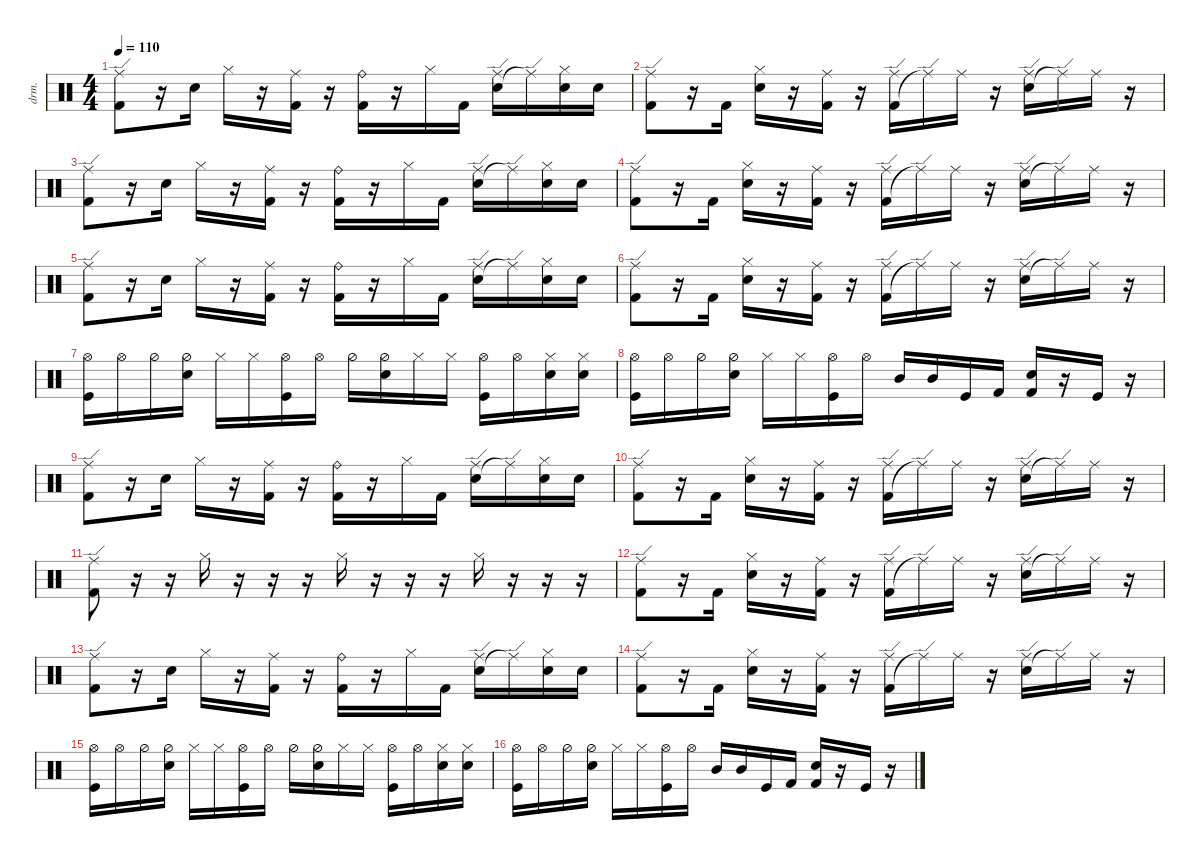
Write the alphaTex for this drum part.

\defaultSystemsLayout 4
\hideDynamics
\bracketExtendMode nobrackets
\otherSystemsTrackNameOrientation horizontal
\track ("Drumkit" "drm.") {instrument percussion}
\staff {score}
\articulation defaults
\ts (4 4)
\tempo 110
\clef neutral
\ks c
("Kick (hit) 2" "Ride (edge)").8{dy mf beam Down} r.16{beam Down} "Snare (hit) 2".16{beam Down} "Hi-Hat (closed)".16{beam Down} r.16{beam Down} ("Kick (hit) 2" "Ride (middle)").16{beam Down} r.16{beam Down} ("Kick (hit) 2" "Ride (bell)").16{beam Down} r.16{beam Down} "Hi-Hat (closed)".16{beam Down} "Kick (hit) 2".16{beam Down} ("Snare (hit) 2" "Ride (edge)").16{beam Down} "Ride (edge)"{t}.16{beam Down} ("Snare (hit) 2" "Hi-Hat (closed)").16{beam Down} "Snare (hit) 2".16{beam Down} |
("Kick (hit) 2" "Ride (edge)").8{beam Down} r.16{beam Down} "Kick (hit) 2".16{beam Down} ("Snare (hit) 2" "Hi-Hat (closed)").16{beam Down} r.16{beam Down} ("Kick (hit) 2" "Ride (middle)").16{beam Down} r.16{beam Down} ("Kick (hit) 2" "Ride (edge)").16{beam Down} "Ride (edge)"{t}.16{beam Down} "Ride (middle)".16{beam Down} r.16{beam Down} ("Snare (hit) 2" "Ride (edge)").16{beam Down} "Ride (edge)"{t}.16{beam Down} "Ride (middle)".16{beam Down} r.16{beam Down} |
("Kick (hit) 2" "Ride (edge)").8{beam Down} r.16{beam Down} "Snare (hit) 2".16{beam Down} "Hi-Hat (closed)".16{beam Down} r.16{beam Down} ("Kick (hit) 2" "Ride (middle)").16{beam Down} r.16{beam Down} ("Kick (hit) 2" "Ride (bell)").16{beam Down} r.16{beam Down} "Hi-Hat (closed)".16{beam Down} "Kick (hit) 2".16{beam Down} ("Snare (hit) 2" "Ride (edge)").16{beam Down} "Ride (edge)"{t}.16{beam Down} ("Snare (hit) 2" "Hi-Hat (closed)").16{beam Down} "Snare (hit) 2".16{beam Down} |
("Kick (hit) 2" "Ride (edge)").8{beam Down} r.16{beam Down} "Kick (hit) 2".16{beam Down} ("Snare (hit) 2" "Hi-Hat (closed)").16{beam Down} r.16{beam Down} ("Kick (hit) 2" "Ride (middle)").16{beam Down} r.16{beam Down} ("Kick (hit) 2" "Ride (edge)").16{beam Down} "Ride (edge)"{t}.16{beam Down} "Ride (middle)".16{beam Down} r.16{beam Down} ("Snare (hit) 2" "Ride (edge)").16{beam Down} "Ride (edge)"{t}.16{beam Down} "Ride (middle)".16{beam Down} r.16{beam Down} |
("Kick (hit) 2" "Ride (edge)").8{beam Down} r.16{beam Down} "Snare (hit) 2".16{beam Down} "Hi-Hat (closed)".16{beam Down} r.16{beam Down} ("Kick (hit) 2" "Ride (middle)").16{beam Down} r.16{beam Down} ("Kick (hit) 2" "Ride (bell)").16{beam Down} r.16{beam Down} "Hi-Hat (closed)".16{beam Down} "Kick (hit) 2".16{beam Down} ("Snare (hit) 2" "Ride (edge)").16{beam Down} "Ride (edge)"{t}.16{beam Down} ("Snare (hit) 2" "Hi-Hat (closed)").16{beam Down} "Snare (hit) 2".16{beam Down} |
("Kick (hit) 2" "Ride (edge)").8{beam Down} r.16{beam Down} "Kick (hit) 2".16{beam Down} ("Snare (hit) 2" "Hi-Hat (closed)").16{beam Down} r.16{beam Down} ("Kick (hit) 2" "Ride (middle)").16{beam Down} r.16{beam Down} ("Kick (hit) 2" "Ride (edge)").16{beam Down} "Ride (edge)"{t}.16{beam Down} "Ride (middle)".16{beam Down} r.16{beam Down} ("Snare (hit) 2" "Ride (edge)").16{beam Down} "Ride (edge)"{t}.16{beam Down} "Ride (middle)".16{beam Down} r.16{beam Down} |
("Hi-Hat (open)" "Kick (hit)").16{beam Down} "Hi-Hat (open)".16{beam Down} "Hi-Hat (half)".16{beam Down} ("Hi-Hat (half)" "Snare (hit) 2").16{beam Down} "Hi-Hat (closed)".16{beam Down} "Hi-Hat (closed)".16{beam Down} ("Hi-Hat (open)" "Kick (hit)").16{beam Down} "Hi-Hat (open)".16{beam Down} "Hi-Hat (half)".16{beam Down} ("Snare (hit) 2" "Hi-Hat (half)").16{beam Down} "Hi-Hat (closed)".16{beam Down} "Hi-Hat (closed)".16{beam Down} ("Hi-Hat (open)" "Kick (hit)").16{beam Down} "Hi-Hat (open)".16{beam Down} ("Snare (hit) 2" "Hi-Hat (closed)").16{beam Down} ("Hi-Hat (closed)" "Snare (hit) 2").16{beam Down} |
("Hi-Hat (open)" "Kick (hit)").16{beam Down} "Hi-Hat (open)".16{beam Down} "Hi-Hat (half)".16{beam Down} ("Hi-Hat (half)" "Snare (hit) 2").16{beam Down} "Hi-Hat (closed)".16{beam Down} "Hi-Hat (closed)".16{beam Down} ("Hi-Hat (open)" "Kick (hit)").16{beam Down} "Hi-Hat (open)".16{beam Down} "Mid Tom (hit)".16{beam Up} "Mid Tom (hit)".16{beam Up} "Kick (hit)".16{beam Up} "Kick (hit) 2".16{beam Up} ("Kick (hit) 2" "Snare (hit) 2").16{beam Up} r.16{beam Up} "Kick (hit)".16{beam Up} r.16{beam Up} |
("Kick (hit) 2" "Ride (edge)").8{beam Down} r.16{beam Down} "Snare (hit) 2".16{beam Down} "Hi-Hat (closed)".16{beam Down} r.16{beam Down} ("Kick (hit) 2" "Ride (middle)").16{beam Down} r.16{beam Down} ("Kick (hit) 2" "Ride (bell)").16{beam Down} r.16{beam Down} "Hi-Hat (closed)".16{beam Down} "Kick (hit) 2".16{beam Down} ("Snare (hit) 2" "Ride (edge)").16{beam Down} "Ride (edge)"{t}.16{beam Down} ("Snare (hit) 2" "Hi-Hat (closed)").16{beam Down} "Snare (hit) 2".16{beam Down} |
("Kick (hit) 2" "Ride (edge)").8{beam Down} r.16{beam Down} "Kick (hit) 2".16{beam Down} ("Snare (hit) 2" "Hi-Hat (closed)").16{beam Down} r.16{beam Down} ("Kick (hit) 2" "Ride (middle)").16{beam Down} r.16{beam Down} ("Kick (hit) 2" "Ride (edge)").16{beam Down} "Ride (edge)"{t}.16{beam Down} "Ride (middle)".16{beam Down} r.16{beam Down} ("Snare (hit) 2" "Ride (edge)").16{beam Down} "Ride (edge)"{t}.16{beam Down} "Ride (middle)".16{beam Down} r.16{beam Down} |
("Kick (hit) 2" "Ride (edge)").8{beam Down} r.16{beam Down} r.16{beam Down} "Hi-Hat (closed)".16{beam Down} r.16{beam Down} r.16{beam Down} r.16{beam Down} "Hi-Hat (closed)".16{beam Down} r.16{beam Down} r.16{beam Down} r.16{beam Down} "Hi-Hat (closed)".16{beam Down} r.16{beam Down} r.16{beam Down} r.16{beam Down} |
("Kick (hit) 2" "Ride (edge)").8{beam Down} r.16{beam Down} "Kick (hit) 2".16{beam Down} ("Snare (hit) 2" "Hi-Hat (closed)").16{beam Down} r.16{beam Down} ("Kick (hit) 2" "Ride (middle)").16{beam Down} r.16{beam Down} ("Kick (hit) 2" "Ride (edge)").16{beam Down} "Ride (edge)"{t}.16{beam Down} "Ride (middle)".16{beam Down} r.16{beam Down} ("Snare (hit) 2" "Ride (edge)").16{beam Down} "Ride (edge)"{t}.16{beam Down} "Ride (middle)".16{beam Down} r.16{beam Down} |
("Kick (hit) 2" "Ride (edge)").8{beam Down} r.16{beam Down} "Snare (hit) 2".16{beam Down} "Hi-Hat (closed)".16{beam Down} r.16{beam Down} ("Kick (hit) 2" "Ride (middle)").16{beam Down} r.16{beam Down} ("Kick (hit) 2" "Ride (bell)").16{beam Down} r.16{beam Down} "Hi-Hat (closed)".16{beam Down} "Kick (hit) 2".16{beam Down} ("Snare (hit) 2" "Ride (edge)").16{beam Down} "Ride (edge)"{t}.16{beam Down} ("Snare (hit) 2" "Hi-Hat (closed)").16{beam Down} "Snare (hit) 2".16{beam Down} |
("Kick (hit) 2" "Ride (edge)").8{beam Down} r.16{beam Down} "Kick (hit) 2".16{beam Down} ("Snare (hit) 2" "Hi-Hat (closed)").16{beam Down} r.16{beam Down} ("Kick (hit) 2" "Ride (middle)").16{beam Down} r.16{beam Down} ("Kick (hit) 2" "Ride (edge)").16{beam Down} "Ride (edge)"{t}.16{beam Down} "Ride (middle)".16{beam Down} r.16{beam Down} ("Snare (hit) 2" "Ride (edge)").16{beam Down} "Ride (edge)"{t}.16{beam Down} "Ride (middle)".16{beam Down} r.16{beam Down} |
("Hi-Hat (open)" "Kick (hit)").16{beam Down} "Hi-Hat (open)".16{beam Down} "Hi-Hat (half)".16{beam Down} ("Hi-Hat (half)" "Snare (hit) 2").16{beam Down} "Hi-Hat (closed)".16{beam Down} "Hi-Hat (closed)".16{beam Down} ("Hi-Hat (open)" "Kick (hit)").16{beam Down} "Hi-Hat (open)".16{beam Down} "Hi-Hat (half)".16{beam Down} ("Snare (hit) 2" "Hi-Hat (half)").16{beam Down} "Hi-Hat (closed)".16{beam Down} "Hi-Hat (closed)".16{beam Down} ("Hi-Hat (open)" "Kick (hit)").16{beam Down} "Hi-Hat (open)".16{beam Down} ("Snare (hit) 2" "Hi-Hat (closed)").16{beam Down} ("Hi-Hat (closed)" "Snare (hit) 2").16{beam Down} |
("Hi-Hat (open)" "Kick (hit)").16{beam Down} "Hi-Hat (open)".16{beam Down} "Hi-Hat (half)".16{beam Down} ("Hi-Hat (half)" "Snare (hit) 2").16{beam Down} "Hi-Hat (closed)".16{beam Down} "Hi-Hat (closed)".16{beam Down} ("Hi-Hat (open)" "Kick (hit)").16{beam Down} "Hi-Hat (open)".16{beam Down} "Mid Tom (hit)".16{beam Up} "Mid Tom (hit)".16{beam Up} "Kick (hit)".16{beam Up} "Kick (hit) 2".16{beam Up} ("Kick (hit) 2" "Snare (hit) 2").16{beam Up} r.16{beam Up} "Kick (hit)".16{beam Up} r.16{beam Up}
